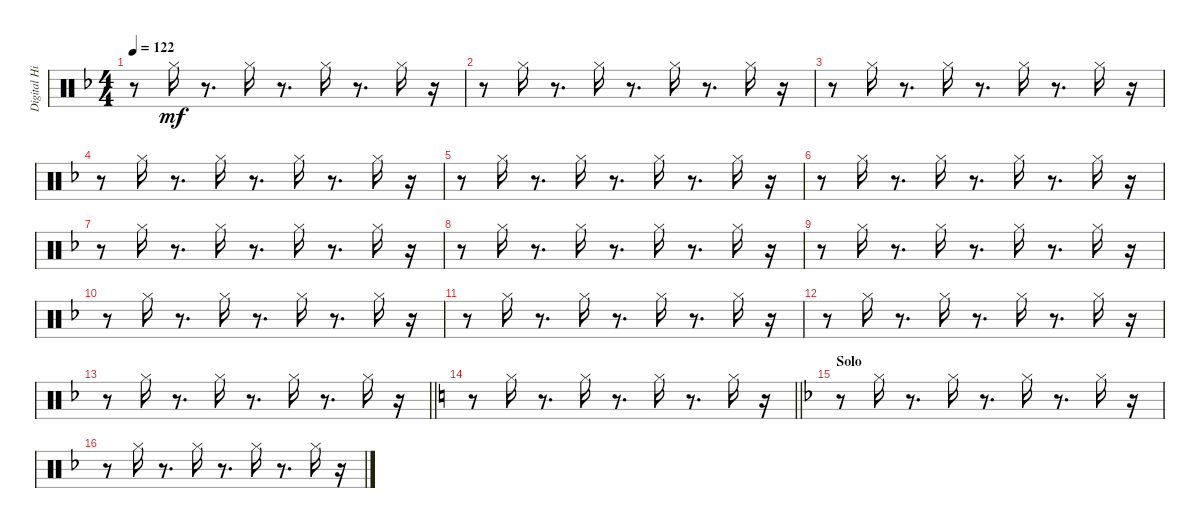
\track ("Digital Hi-Hat (Stephen Morris)" "Digital Hi") {instrument percussion}
\staff {score}
\articulation defaults
\ts (4 4)
\tempo 122
\clef neutral
\ks f
r.8{dy mf} "Hi-Hat (closed)".16 r.8{d} "Hi-Hat (closed)".16 r.8{d} "Hi-Hat (closed)".16 r.8{d} "Hi-Hat (closed)".16 r.16 |
r.8 "Hi-Hat (closed)".16 r.8{d} "Hi-Hat (closed)".16 r.8{d} "Hi-Hat (closed)".16 r.8{d} "Hi-Hat (closed)".16 r.16 |
r.8 "Hi-Hat (closed)".16 r.8{d} "Hi-Hat (closed)".16 r.8{d} "Hi-Hat (closed)".16 r.8{d} "Hi-Hat (closed)".16 r.16 |
r.8 "Hi-Hat (closed)".16 r.8{d} "Hi-Hat (closed)".16 r.8{d} "Hi-Hat (closed)".16 r.8{d} "Hi-Hat (closed)".16 r.16 |
r.8 "Hi-Hat (closed)".16 r.8{d} "Hi-Hat (closed)".16 r.8{d} "Hi-Hat (closed)".16 r.8{d} "Hi-Hat (closed)".16 r.16 |
r.8 "Hi-Hat (closed)".16 r.8{d} "Hi-Hat (closed)".16 r.8{d} "Hi-Hat (closed)".16 r.8{d} "Hi-Hat (closed)".16 r.16 |
r.8 "Hi-Hat (closed)".16 r.8{d} "Hi-Hat (closed)".16 r.8{d} "Hi-Hat (closed)".16 r.8{d} "Hi-Hat (closed)".16 r.16 |
r.8 "Hi-Hat (closed)".16 r.8{d} "Hi-Hat (closed)".16 r.8{d} "Hi-Hat (closed)".16 r.8{d} "Hi-Hat (closed)".16 r.16 |
r.8 "Hi-Hat (closed)".16 r.8{d} "Hi-Hat (closed)".16 r.8{d} "Hi-Hat (closed)".16 r.8{d} "Hi-Hat (closed)".16 r.16 |
r.8 "Hi-Hat (closed)".16 r.8{d} "Hi-Hat (closed)".16 r.8{d} "Hi-Hat (closed)".16 r.8{d} "Hi-Hat (closed)".16 r.16 |
r.8 "Hi-Hat (closed)".16 r.8{d} "Hi-Hat (closed)".16 r.8{d} "Hi-Hat (closed)".16 r.8{d} "Hi-Hat (closed)".16 r.16 |
r.8 "Hi-Hat (closed)".16 r.8{d} "Hi-Hat (closed)".16 r.8{d} "Hi-Hat (closed)".16 r.8{d} "Hi-Hat (closed)".16 r.16 |
\barLineRight lightlight
r.8 "Hi-Hat (closed)".16 r.8{d} "Hi-Hat (closed)".16 r.8{d} "Hi-Hat (closed)".16 r.8{d} "Hi-Hat (closed)".16 r.16 |
\barLineRight lightlight
\ks c
r.8 "Hi-Hat (closed)".16 r.8{d} "Hi-Hat (closed)".16 r.8{d} "Hi-Hat (closed)".16 r.8{d} "Hi-Hat (closed)".16 r.16 |
\section ("" "Solo")
\ks f
r.8 "Hi-Hat (closed)".16 r.8{d} "Hi-Hat (closed)".16 r.8{d} "Hi-Hat (closed)".16 r.8{d} "Hi-Hat (closed)".16 r.16 |
r.8 "Hi-Hat (closed)".16 r.8{d} "Hi-Hat (closed)".16 r.8{d} "Hi-Hat (closed)".16 r.8{d} "Hi-Hat (closed)".16 r.16
